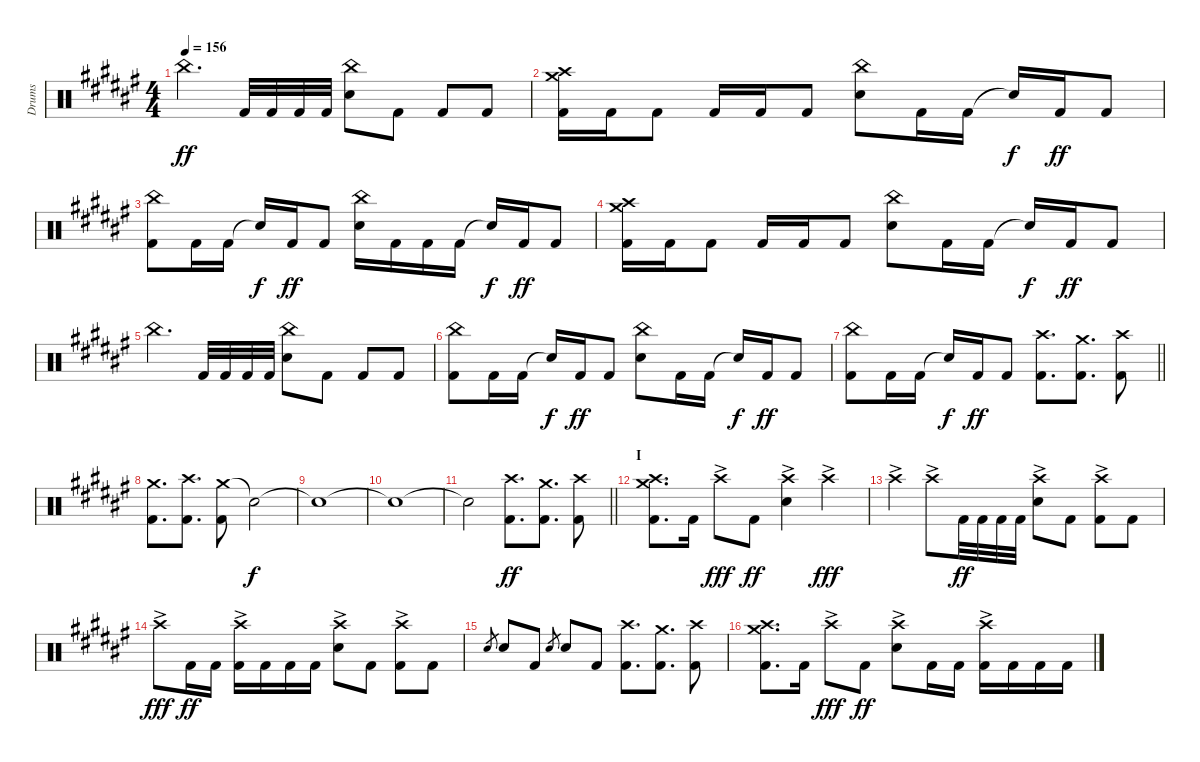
\track ("Drums" "Drums") {instrument percussion}
\staff {score}
\articulation defaults
\ts (4 4)
\tempo 156
\clef neutral
\ks f# "China (hit)".4{d dy ff} "Kick (hit) 2".32 "Kick (hit) 2".32 "Kick (hit) 2".32 "Kick (hit) 2".32
("China (hit)" "Electric Snare (hit)").8 "Kick (hit) 2".8 "Kick (hit) 2".8 "Kick (hit) 2".8 |
("Crash medium (hit)" "Crash high (hit)" "Kick (hit) 2").16 "Kick (hit) 2".16 "Kick (hit) 2".8 "Kick (hit) 2".16 "Kick (hit) 2".16 "Kick (hit) 2".8 ("China (hit)" "Electric Snare (hit)").8 "Kick (hit) 2".16 "Kick (hit) 2".16 "Snare (hit)"{t}.16{dy f} "Kick (hit) 2".16{dy ff} "Kick (hit) 2".8 |
("China (hit)" "Kick (hit) 2").8 "Kick (hit) 2".16 "Kick (hit) 2".16 "Snare (hit)"{t}.16{dy f} "Kick (hit) 2".16{dy ff} "Kick (hit) 2".8 ("China (hit)" "Electric Snare (hit)").16 "Kick (hit) 2".16 "Kick (hit) 2".16 "Kick (hit) 2".16 "Snare (hit)"{t}.16{dy f} "Kick (hit) 2".16{dy ff} "Kick (hit) 2".8 |
("Crash medium (hit)" "Crash high (hit)" "Kick (hit) 2").16 "Kick (hit) 2".16 "Kick (hit) 2".8 "Kick (hit) 2".16 "Kick (hit) 2".16 "Kick (hit) 2".8 ("China (hit)" "Electric Snare (hit)").8 "Kick (hit) 2".16 "Kick (hit) 2".16 "Snare (hit)"{t}.16{dy f} "Kick (hit) 2".16{dy ff} "Kick (hit) 2".8 |
"China (hit)".4{d} "Kick (hit) 2".32 "Kick (hit) 2".32 "Kick (hit) 2".32 "Kick (hit) 2".32 ("China (hit)" "Electric Snare (hit)").8 "Kick (hit) 2".8 "Kick (hit) 2".8 "Kick (hit) 2".8 |
("China (hit)" "Kick (hit) 2").8 "Kick (hit) 2".16 "Kick (hit) 2".16 "Snare (hit)"{t}.16{dy f} "Kick (hit) 2".16{dy ff} "Kick (hit) 2".8 ("China (hit)" "Electric Snare (hit)").8 "Kick (hit) 2".16 "Kick (hit) 2".16 "Snare (hit)"{t}.16{dy f} "Kick (hit) 2".16{dy ff} "Kick (hit) 2".8 |
\barLineRight lightlight
("China (hit)" "Kick (hit) 2").8 "Kick (hit) 2".16 "Kick (hit) 2".16 "Snare (hit)"{t}.16{dy f} "Kick (hit) 2".16{dy ff} "Kick (hit) 2".8 ("Crash high (hit)" "Kick (hit) 2").8{d} ("Crash medium (hit)" "Kick (hit) 2").8{d} ("Crash high (hit)" "Kick (hit) 2").8 |
\section ("" "")
("Crash medium (hit)" "Kick (hit) 2").8{d} ("Crash high (hit)" "Kick (hit) 2").8{d} ("Crash medium (hit)" "Kick (hit) 2").8 "Snare (hit)"{t}.2{dy f} |
"Snare (hit)"{t}.1 |
"Snare (hit)"{t}.1 |
\barLineRight lightlight "Snare (hit)"{t}.2
("Crash high (hit)" "Kick (hit) 2").8{d dy ff} ("Crash medium (hit)" "Kick (hit) 2").8{d} ("Crash high (hit)" "Kick (hit) 2").8 |
\section ("" "I")
("Crash medium (hit)" "Crash high (hit)" "Kick (hit) 2").8{d} "Kick (hit) 2".16 "Crash high (hit)"{ac}.8{dy fff} "Kick (hit) 2".8{dy ff} ("Crash high (hit)"{ac} "Electric Snare (hit)").4 "Crash high (hit)"{ac}.4{dy fff} |
"Crash high (hit)"{ac}.4 "Crash high (hit)"{ac}.8 "Kick (hit) 2".32{dy ff} "Kick (hit) 2".32 "Kick (hit) 2".32 "Kick (hit) 2".32 ("Crash high (hit)"{ac} "Electric Snare (hit)").8 "Kick (hit) 2".8 ("Crash high (hit)"{ac} "Kick (hit) 2").8 "Kick (hit) 2".8 |
"Crash high (hit)"{ac}.8{dy fff} "Kick (hit) 2".16{dy ff} "Kick (hit) 2".16 ("Crash high (hit)"{ac} "Kick (hit) 2").16 "Kick (hit) 2".16 "Kick (hit) 2".16 "Kick (hit) 2".16 ("Crash high (hit)"{ac} "Electric Snare (hit)").8 "Kick (hit) 2".8 ("Crash high (hit)"{ac} "Kick (hit) 2").8 "Kick (hit) 2".8 |
"Electric Snare (hit)".8{gr} "Electric Snare (hit)".8 "Kick (hit) 2".8 "Electric Snare (hit)".8{gr} "Electric Snare (hit)".8 "Kick (hit) 2".8 ("Crash high (hit)" "Kick (hit) 2").8{d} ("Crash medium (hit)" "Kick (hit) 2").8{d} ("Crash high (hit)" "Kick (hit) 2").8 |
("Crash medium (hit)" "Crash high (hit)" "Kick (hit) 2").8{d} "Kick (hit) 2".16 "Crash high (hit)"{ac}.8{dy fff} "Kick (hit) 2".8{dy ff} ("Crash high (hit)"{ac} "Electric Snare (hit)").8 "Kick (hit) 2".16 "Kick (hit) 2".16 ("Crash high (hit)"{ac} "Kick (hit) 2").16 "Kick (hit) 2".16 "Kick (hit) 2".16 "Kick (hit) 2".16
